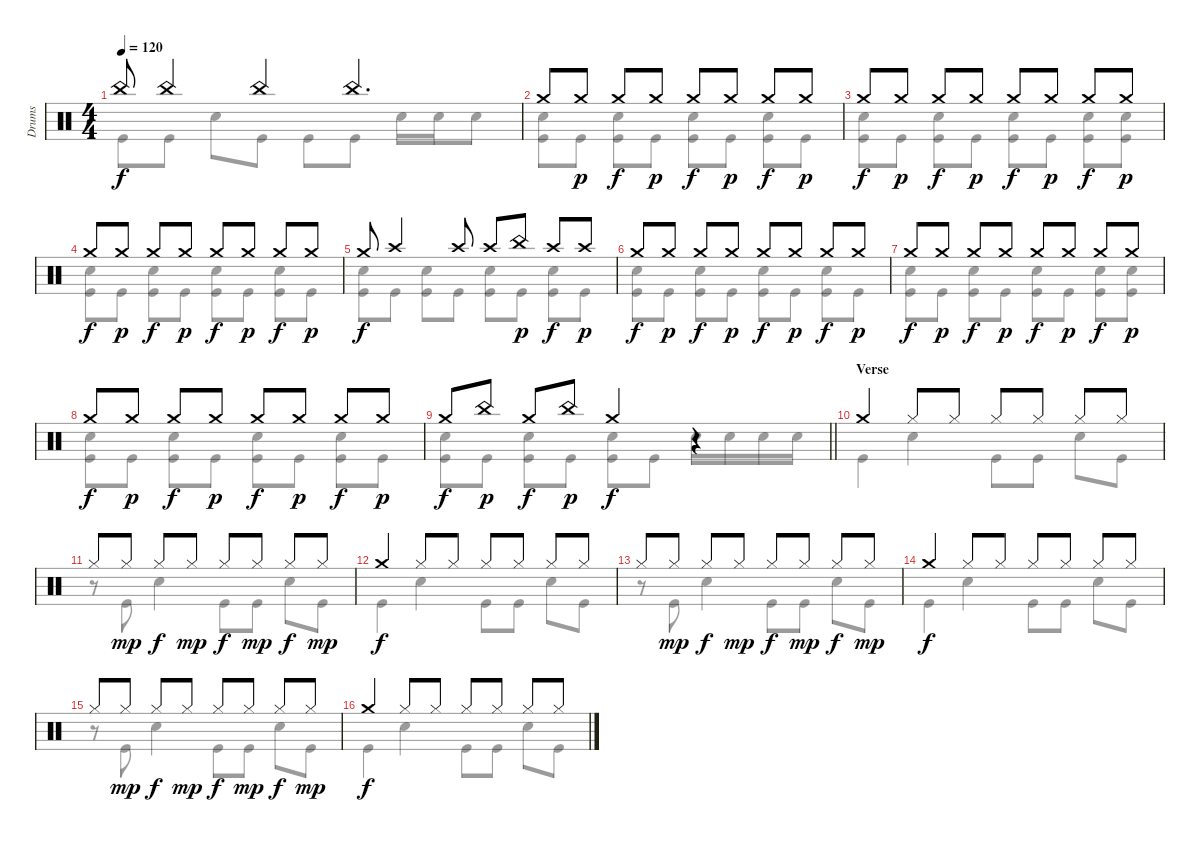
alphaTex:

\track ("Drums" "Drums") {instrument percussion}
\staff {score}
\articulation defaults
\voice
\ts (4 4)
\tempo 120
\clef neutral
\ks c "China (hit)".8{dy f} "China (hit)".4 "China (hit)".4 "China (hit)".4{d}
|
"Crash medium (hit)".8 "Crash medium (hit)".8{dy p} "Crash medium (hit)".8{dy f} "Crash medium (hit)".8{dy p} "Crash medium (hit)".8{dy f} "Crash medium (hit)".8{dy p} "Crash medium (hit)".8{dy f} "Crash medium (hit)".8{dy p} |
"Crash medium (hit)".8{dy f} "Crash medium (hit)".8{dy p} "Crash medium (hit)".8{dy f} "Crash medium (hit)".8{dy p} "Crash medium (hit)".8{dy f} "Crash medium (hit)".8{dy p} "Crash medium (hit)".8{dy f} "Crash medium (hit)".8{dy p} |
"Crash medium (hit)".8{dy f} "Crash medium (hit)".8{dy p} "Crash medium (hit)".8{dy f} "Crash medium (hit)".8{dy p} "Crash medium (hit)".8{dy f} "Crash medium (hit)".8{dy p} "Crash medium (hit)".8{dy f} "Crash medium (hit)".8{dy p} |
"Crash medium (hit)".8{dy f} "Crash high (hit)".4 "Crash high (hit)".8 "Crash high (hit)".8 "China (hit)".8{dy p} "Crash high (hit)".8{dy f} "Crash high (hit)".8{dy p} |
"Crash medium (hit)".8{dy f} "Crash medium (hit)".8{dy p} "Crash medium (hit)".8{dy f} "Crash medium (hit)".8{dy p} "Crash medium (hit)".8{dy f} "Crash medium (hit)".8{dy p} "Crash medium (hit)".8{dy f} "Crash medium (hit)".8{dy p} |
"Crash medium (hit)".8{dy f} "Crash medium (hit)".8{dy p} "Crash medium (hit)".8{dy f} "Crash medium (hit)".8{dy p} "Crash medium (hit)".8{dy f} "Crash medium (hit)".8{dy p} "Crash medium (hit)".8{dy f} "Crash medium (hit)".8{dy p} |
"Crash medium (hit)".8{dy f} "Crash medium (hit)".8{dy p} "Crash medium (hit)".8{dy f} "Crash medium (hit)".8{dy p} "Crash medium (hit)".8{dy f} "Crash medium (hit)".8{dy p} "Crash medium (hit)".8{dy f} "Crash medium (hit)".8{dy p} |
\barLineRight lightlight "Crash medium (hit)".8{dy f} "China (hit)".8{dy p} "Crash medium (hit)".8{dy f} "China (hit)".8{dy p} "Crash medium (hit)".4{dy f}
r.4 |
\section ("" "Verse")
"Crash medium (hit)".4 "Hi-Hat (closed)".8 "Hi-Hat (closed)".8 "Hi-Hat (closed)".8 "Hi-Hat (closed)".8 "Hi-Hat (closed)".8 "Hi-Hat (closed)".8 |
"Hi-Hat (closed)".8 "Hi-Hat (closed)".8{dy mp} "Hi-Hat (closed)".8{dy f} "Hi-Hat (closed)".8{dy mp} "Hi-Hat (closed)".8{dy f} "Hi-Hat (closed)".8{dy mp} "Hi-Hat (closed)".8{dy f} "Hi-Hat (closed)".8{dy mp} |
"Crash medium (hit)".4{dy f} "Hi-Hat (closed)".8 "Hi-Hat (closed)".8 "Hi-Hat (closed)".8 "Hi-Hat (closed)".8 "Hi-Hat (closed)".8 "Hi-Hat (closed)".8 |
"Hi-Hat (closed)".8 "Hi-Hat (closed)".8{dy mp} "Hi-Hat (closed)".8{dy f} "Hi-Hat (closed)".8{dy mp} "Hi-Hat (closed)".8{dy f} "Hi-Hat (closed)".8{dy mp} "Hi-Hat (closed)".8{dy f} "Hi-Hat (closed)".8{dy mp} |
"Crash medium (hit)".4{dy f} "Hi-Hat (closed)".8 "Hi-Hat (closed)".8 "Hi-Hat (closed)".8 "Hi-Hat (closed)".8 "Hi-Hat (closed)".8 "Hi-Hat (closed)".8 |
"Hi-Hat (closed)".8 "Hi-Hat (closed)".8{dy mp} "Hi-Hat (closed)".8{dy f} "Hi-Hat (closed)".8{dy mp} "Hi-Hat (closed)".8{dy f} "Hi-Hat (closed)".8{dy mp} "Hi-Hat (closed)".8{dy f} "Hi-Hat (closed)".8{dy mp} |
"Crash medium (hit)".4{dy f} "Hi-Hat (closed)".8 "Hi-Hat (closed)".8 "Hi-Hat (closed)".8 "Hi-Hat (closed)".8 "Hi-Hat (closed)".8 "Hi-Hat (closed)".8
\voice
\clef neutral
\ottava regular
\simile none
\ks c "Kick (hit)".8{dy f} "Kick (hit)".8 "Snare (hit) 2".8 "Kick (hit)".8 "Kick (hit)".8 "Kick (hit)".8 "Snare (hit) 2".16 "Snare (hit) 2".16 "Snare (hit) 2".8
|
("Snare (hit) 2" "Kick (hit)").8 "Kick (hit)".8 ("Snare (hit) 2" "Kick (hit)").8 "Kick (hit)".8 ("Snare (hit) 2" "Kick (hit)").8 "Kick (hit)".8 ("Snare (hit) 2" "Kick (hit)").8 "Kick (hit)".8 |
("Snare (hit) 2" "Kick (hit)").8 "Kick (hit)".8 ("Snare (hit) 2" "Kick (hit)").8 "Kick (hit)".8 ("Snare (hit) 2" "Kick (hit)").8 "Kick (hit)".8 ("Snare (hit) 2" "Kick (hit)").8 ("Snare (hit) 2" "Kick (hit)").8 |
("Snare (hit) 2" "Kick (hit)").8 "Kick (hit)".8 ("Snare (hit) 2" "Kick (hit)").8 "Kick (hit)".8 ("Snare (hit) 2" "Kick (hit)").8 "Kick (hit)".8 ("Snare (hit) 2" "Kick (hit)").8 "Kick (hit)".8 |
("Snare (hit) 2" "Kick (hit)").8 "Kick (hit)".8 ("Snare (hit) 2" "Kick (hit)").8 "Kick (hit)".8 ("Snare (hit) 2" "Kick (hit)").8 "Kick (hit)".8 ("Snare (hit) 2" "Kick (hit)").8 "Kick (hit)".8 |
("Snare (hit) 2" "Kick (hit)").8 "Kick (hit)".8 ("Snare (hit) 2" "Kick (hit)").8 "Kick (hit)".8 ("Snare (hit) 2" "Kick (hit)").8 "Kick (hit)".8 ("Snare (hit) 2" "Kick (hit)").8 "Kick (hit)".8 |
("Snare (hit) 2" "Kick (hit)").8 "Kick (hit)".8 ("Snare (hit) 2" "Kick (hit)").8 "Kick (hit)".8 ("Snare (hit) 2" "Kick (hit)").8 "Kick (hit)".8 ("Snare (hit) 2" "Kick (hit)").8 ("Snare (hit) 2" "Kick (hit)").8 |
("Snare (hit) 2" "Kick (hit)").8 "Kick (hit)".8 ("Snare (hit) 2" "Kick (hit)").8 "Kick (hit)".8 ("Snare (hit) 2" "Kick (hit)").8 "Kick (hit)".8 ("Snare (hit) 2" "Kick (hit)").8 "Kick (hit)".8 |
\barLineRight lightlight
("Snare (hit) 2" "Kick (hit)").8 "Kick (hit)".8 ("Snare (hit) 2" "Kick (hit)").8 "Kick (hit)".8 ("Snare (hit) 2" "Kick (hit)").8 "Kick (hit)".8 "Snare (hit) 2".16 "Snare (hit) 2".16 "Snare (hit) 2".16 "Snare (hit) 2".16 |
"Kick (hit)".4 "Snare (hit) 2".4 "Kick (hit)".8 "Kick (hit)".8 "Snare (hit) 2".8 "Kick (hit)".8 |
r.8 "Kick (hit)".8 "Snare (hit) 2".4 "Kick (hit)".8 "Kick (hit)".8 "Snare (hit) 2".8 "Kick (hit)".8 |
"Kick (hit)".4 "Snare (hit) 2".4 "Kick (hit)".8 "Kick (hit)".8 "Snare (hit) 2".8 "Kick (hit)".8 |
r.8 "Kick (hit)".8 "Snare (hit) 2".4 "Kick (hit)".8 "Kick (hit)".8 "Snare (hit) 2".8 "Kick (hit)".8 |
"Kick (hit)".4 "Snare (hit) 2".4 "Kick (hit)".8 "Kick (hit)".8 "Snare (hit) 2".8 "Kick (hit)".8 |
r.8 "Kick (hit)".8 "Snare (hit) 2".4 "Kick (hit)".8 "Kick (hit)".8 "Snare (hit) 2".8 "Kick (hit)".8 |
"Kick (hit)".4 "Snare (hit) 2".4 "Kick (hit)".8 "Kick (hit)".8 "Snare (hit) 2".8 "Kick (hit)".8
